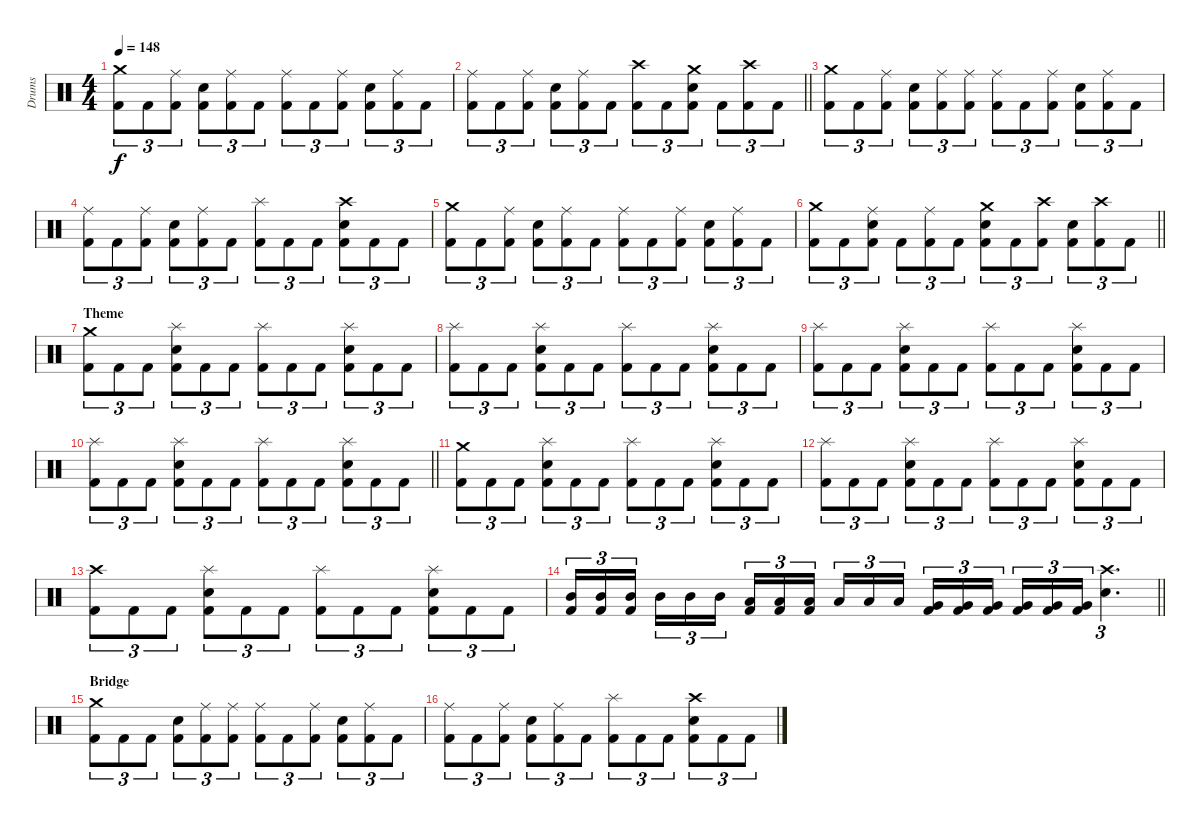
\track ("Drums" "Drums") {instrument percussion}
\staff {score}
\articulation defaults
\ts (4 4)
\tempo 148
\clef neutral
\ks c
("Kick (hit) 2" "Crash medium (hit)").8{tu (3 2) dy f} "Kick (hit) 2".8{tu (3 2)} ("Kick (hit) 2" "Ride (middle)").8{tu (3 2)} ("Kick (hit) 2" "Snare (hit) 2").8{tu (3 2)} ("Kick (hit) 2" "Ride (middle)").8{tu (3 2)} "Kick (hit) 2".8{tu (3 2)} ("Kick (hit) 2" "Ride (middle)").8{tu (3 2)} "Kick (hit) 2".8{tu (3 2)} ("Kick (hit) 2" "Ride (middle)").8{tu (3 2)} ("Kick (hit) 2" "Snare (hit) 2").8{tu (3 2)} ("Kick (hit) 2" "Ride (middle)").8{tu (3 2)} "Kick (hit) 2".8{tu (3 2)} |
\barLineRight lightlight
("Kick (hit) 2" "Ride (middle)").8{tu (3 2)} "Kick (hit) 2".8{tu (3 2)} ("Kick (hit) 2" "Ride (middle)").8{tu (3 2)} ("Kick (hit) 2" "Snare (hit) 2").8{tu (3 2)} ("Kick (hit) 2" "Ride (middle)").8{tu (3 2)} "Kick (hit) 2".8{tu (3 2)} ("Kick (hit) 2" "Crash high (hit)").8{tu (3 2)} "Kick (hit) 2".8{tu (3 2)} ("Kick (hit) 2" "Snare (hit) 2" "Crash medium (hit)").8{tu (3 2)} "Kick (hit) 2".8{tu (3 2)} ("Kick (hit) 2" "Crash high (hit)").8{tu (3 2)} "Kick (hit) 2".8{tu (3 2)} |
\section ("" "")
("Kick (hit) 2" "Crash medium (hit)").8{tu (3 2)} "Kick (hit) 2".8{tu (3 2)} ("Kick (hit) 2" "Ride (middle)").8{tu (3 2)} ("Kick (hit) 2" "Snare (hit) 2").8{tu (3 2)} ("Kick (hit) 2" "Ride (middle)").8{tu (3 2)} ("Kick (hit) 2" "Ride (middle)").8{tu (3 2)} ("Kick (hit) 2" "Ride (middle)").8{tu (3 2)} "Kick (hit) 2".8{tu (3 2)} ("Kick (hit) 2" "Ride (middle)").8{tu (3 2)} ("Kick (hit) 2" "Snare (hit) 2").8{tu (3 2)} ("Kick (hit) 2" "Ride (middle)").8{tu (3 2)} "Kick (hit) 2".8{tu (3 2)} |
("Kick (hit) 2" "Ride (middle)").8{tu (3 2)} "Kick (hit) 2".8{tu (3 2)} ("Kick (hit) 2" "Ride (middle)").8{tu (3 2)} ("Kick (hit) 2" "Snare (hit) 2").8{tu (3 2)} ("Kick (hit) 2" "Ride (middle)").8{tu (3 2)} "Kick (hit) 2".8{tu (3 2)} ("Kick (hit) 2" "Splash (hit)").8{tu (3 2)} "Kick (hit) 2".8{tu (3 2)} "Kick (hit) 2".8{tu (3 2)} ("Kick (hit) 2" "Snare (hit) 2" "Crash high (hit)").8{tu (3 2)} "Kick (hit) 2".8{tu (3 2)} "Kick (hit) 2".8{tu (3 2)} |
("Kick (hit) 2" "Crash medium (hit)").8{tu (3 2)} "Kick (hit) 2".8{tu (3 2)} ("Kick (hit) 2" "Ride (middle)").8{tu (3 2)} ("Kick (hit) 2" "Snare (hit) 2").8{tu (3 2)} ("Kick (hit) 2" "Ride (middle)").8{tu (3 2)} "Kick (hit) 2".8{tu (3 2)} ("Kick (hit) 2" "Ride (middle)").8{tu (3 2)} "Kick (hit) 2".8{tu (3 2)} ("Kick (hit) 2" "Ride (middle)").8{tu (3 2)} ("Kick (hit) 2" "Snare (hit) 2").8{tu (3 2)} ("Kick (hit) 2" "Ride (middle)").8{tu (3 2)} "Kick (hit) 2".8{tu (3 2)} |
\barLineRight lightlight
("Kick (hit) 2" "Crash medium (hit)").8{tu (3 2)} "Kick (hit) 2".8{tu (3 2)} ("Kick (hit) 2" "Snare (hit) 2" "Ride (middle)").8{tu (3 2)} "Kick (hit) 2".8{tu (3 2)} ("Kick (hit) 2" "Ride (middle)").8{tu (3 2)} "Kick (hit) 2".8{tu (3 2)} ("Kick (hit) 2" "Snare (hit) 2" "Crash medium (hit)").8{tu (3 2)} "Kick (hit) 2".8{tu (3 2)} ("Kick (hit) 2" "Crash high (hit)").8{tu (3 2)} ("Kick (hit) 2" "Snare (hit) 2").8{tu (3 2)} ("Kick (hit) 2" "Crash high (hit)").8{tu (3 2)} "Kick (hit) 2".8{tu (3 2)} |
\section ("" "Theme")
("Kick (hit) 2" "Crash medium (hit)").8{tu (3 2)} "Kick (hit) 2".8{tu (3 2)} "Kick (hit) 2".8{tu (3 2)} ("Kick (hit) 2" "Snare (hit) 2" "Splash (hit)").8{tu (3 2)} "Kick (hit) 2".8{tu (3 2)} "Kick (hit) 2".8{tu (3 2)} ("Kick (hit) 2" "Splash (hit)").8{tu (3 2)} "Kick (hit) 2".8{tu (3 2)} "Kick (hit) 2".8{tu (3 2)} ("Kick (hit) 2" "Snare (hit) 2" "Splash (hit)").8{tu (3 2)} "Kick (hit) 2".8{tu (3 2)} "Kick (hit) 2".8{tu (3 2)} |
("Kick (hit) 2" "Splash (hit)").8{tu (3 2)} "Kick (hit) 2".8{tu (3 2)} "Kick (hit) 2".8{tu (3 2)} ("Kick (hit) 2" "Snare (hit) 2" "Splash (hit)").8{tu (3 2)} "Kick (hit) 2".8{tu (3 2)} "Kick (hit) 2".8{tu (3 2)} ("Kick (hit) 2" "Splash (hit)").8{tu (3 2)} "Kick (hit) 2".8{tu (3 2)} "Kick (hit) 2".8{tu (3 2)} ("Kick (hit) 2" "Snare (hit) 2" "Splash (hit)").8{tu (3 2)} "Kick (hit) 2".8{tu (3 2)} "Kick (hit) 2".8{tu (3 2)} |
("Kick (hit) 2" "Splash (hit)").8{tu (3 2)} "Kick (hit) 2".8{tu (3 2)} "Kick (hit) 2".8{tu (3 2)} ("Kick (hit) 2" "Snare (hit) 2" "Splash (hit)").8{tu (3 2)} "Kick (hit) 2".8{tu (3 2)} "Kick (hit) 2".8{tu (3 2)} ("Kick (hit) 2" "Splash (hit)").8{tu (3 2)} "Kick (hit) 2".8{tu (3 2)} "Kick (hit) 2".8{tu (3 2)} ("Kick (hit) 2" "Snare (hit) 2" "Splash (hit)").8{tu (3 2)} "Kick (hit) 2".8{tu (3 2)} "Kick (hit) 2".8{tu (3 2)} |
\barLineRight lightlight
("Kick (hit) 2" "Splash (hit)").8{tu (3 2)} "Kick (hit) 2".8{tu (3 2)} "Kick (hit) 2".8{tu (3 2)} ("Kick (hit) 2" "Snare (hit) 2" "Splash (hit)").8{tu (3 2)} "Kick (hit) 2".8{tu (3 2)} "Kick (hit) 2".8{tu (3 2)} ("Kick (hit) 2" "Splash (hit)").8{tu (3 2)} "Kick (hit) 2".8{tu (3 2)} "Kick (hit) 2".8{tu (3 2)} ("Kick (hit) 2" "Snare (hit) 2" "Splash (hit)").8{tu (3 2)} "Kick (hit) 2".8{tu (3 2)} "Kick (hit) 2".8{tu (3 2)} |
\section ("" "")
("Kick (hit) 2" "Crash medium (hit)").8{tu (3 2)} "Kick (hit) 2".8{tu (3 2)} "Kick (hit) 2".8{tu (3 2)} ("Kick (hit) 2" "Snare (hit) 2" "Splash (hit)").8{tu (3 2)} "Kick (hit) 2".8{tu (3 2)} "Kick (hit) 2".8{tu (3 2)} ("Kick (hit) 2" "Splash (hit)").8{tu (3 2)} "Kick (hit) 2".8{tu (3 2)} "Kick (hit) 2".8{tu (3 2)} ("Kick (hit) 2" "Snare (hit) 2" "Splash (hit)").8{tu (3 2)} "Kick (hit) 2".8{tu (3 2)} "Kick (hit) 2".8{tu (3 2)} |
("Kick (hit) 2" "Splash (hit)").8{tu (3 2)} "Kick (hit) 2".8{tu (3 2)} "Kick (hit) 2".8{tu (3 2)} ("Kick (hit) 2" "Snare (hit) 2" "Splash (hit)").8{tu (3 2)} "Kick (hit) 2".8{tu (3 2)} "Kick (hit) 2".8{tu (3 2)} ("Kick (hit) 2" "Splash (hit)").8{tu (3 2)} "Kick (hit) 2".8{tu (3 2)} "Kick (hit) 2".8{tu (3 2)} ("Kick (hit) 2" "Snare (hit) 2" "Splash (hit)").8{tu (3 2)} "Kick (hit) 2".8{tu (3 2)} "Kick (hit) 2".8{tu (3 2)} |
("Kick (hit) 2" "Crash high (hit)").8{tu (3 2)} "Kick (hit) 2".8{tu (3 2)} "Kick (hit) 2".8{tu (3 2)} ("Kick (hit) 2" "Snare (hit) 2" "Splash (hit)").8{tu (3 2)} "Kick (hit) 2".8{tu (3 2)} "Kick (hit) 2".8{tu (3 2)} ("Kick (hit) 2" "Splash (hit)").8{tu (3 2)} "Kick (hit) 2".8{tu (3 2)} "Kick (hit) 2".8{tu (3 2)} ("Kick (hit) 2" "Snare (hit) 2" "Splash (hit)").8{tu (3 2)} "Kick (hit) 2".8{tu (3 2)} "Kick (hit) 2".8{tu (3 2)} |
\barLineRight lightlight
("Kick (hit) 2" "Mid Tom (hit)").16{tu (3 2)} ("Kick (hit) 2" "Mid Tom (hit)").16{tu (3 2)} ("Kick (hit) 2" "Mid Tom (hit)").16{tu (3 2) beam splitsecondary} "Mid Tom (hit)".16{tu (3 2)} "Mid Tom (hit)".16{tu (3 2)} "Mid Tom (hit)".16{tu (3 2)} ("Kick (hit) 2" "Low Tom (hit)").16{tu (3 2)} ("Kick (hit) 2" "Low Tom (hit)").16{tu (3 2)} ("Kick (hit) 2" "Low Tom (hit)").16{tu (3 2) beam splitsecondary} "Low Tom (hit)".16{tu (3 2)} "Low Tom (hit)".16{tu (3 2)} "Low Tom (hit)".16{tu (3 2)} ("Kick (hit) 2" "Very Low Tom (hit)").16{tu (3 2)} ("Kick (hit) 2" "Very Low Tom (hit)").16{tu (3 2)} ("Kick (hit) 2" "Very Low Tom (hit)").16{tu (3 2) beam splitsecondary} ("Kick (hit) 2" "Very Low Tom (hit)").16{tu (3 2)} ("Kick (hit) 2" "Very Low Tom (hit)").16{tu (3 2)} ("Kick (hit) 2" "Very Low Tom (hit)").16{tu (3 2)} ("Snare (hit) 2" "Crash high (hit)").4{d tu (3 2)} |
\section ("" "Bridge")
("Kick (hit) 2" "Crash medium (hit)").8{tu (3 2)} "Kick (hit) 2".8{tu (3 2)} "Kick (hit) 2".8{tu (3 2)} ("Kick (hit) 2" "Snare (hit) 2").8{tu (3 2)} ("Kick (hit) 2" "Ride (middle)").8{tu (3 2)} ("Kick (hit) 2" "Ride (middle)").8{tu (3 2)} ("Kick (hit) 2" "Ride (middle)").8{tu (3 2)} "Kick (hit) 2".8{tu (3 2)} ("Kick (hit) 2" "Ride (middle)").8{tu (3 2)} ("Kick (hit) 2" "Snare (hit) 2").8{tu (3 2)} ("Kick (hit) 2" "Ride (middle)").8{tu (3 2)} "Kick (hit) 2".8{tu (3 2)} |
("Kick (hit) 2" "Ride (middle)").8{tu (3 2)} "Kick (hit) 2".8{tu (3 2)} ("Kick (hit) 2" "Ride (middle)").8{tu (3 2)} ("Kick (hit) 2" "Snare (hit) 2").8{tu (3 2)} ("Kick (hit) 2" "Ride (middle)").8{tu (3 2)} "Kick (hit) 2".8{tu (3 2)} ("Kick (hit) 2" "Splash (hit)").8{tu (3 2)} "Kick (hit) 2".8{tu (3 2)} "Kick (hit) 2".8{tu (3 2)} ("Kick (hit) 2" "Snare (hit) 2" "Crash high (hit)").8{tu (3 2)} "Kick (hit) 2".8{tu (3 2)} "Kick (hit) 2".8{tu (3 2)}
